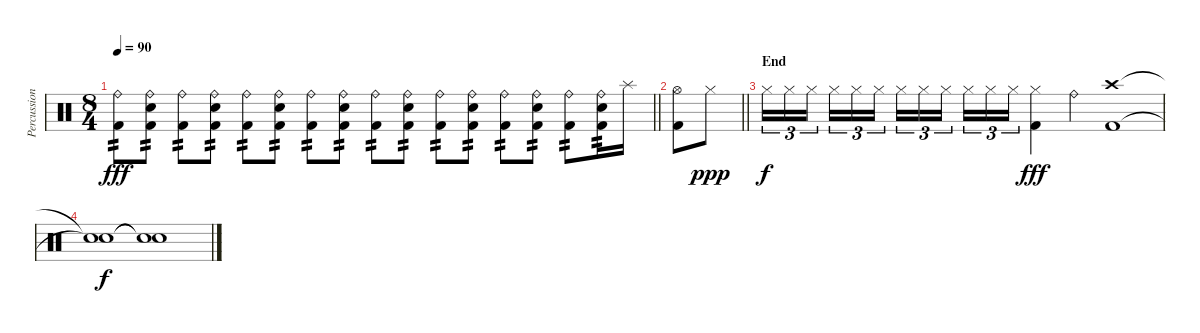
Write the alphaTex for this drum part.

\track ("Percussion" "Percussion") {instrument percussion}
\staff {score}
\articulation defaults
\ts (8 4)
\tempo 90
\clef neutral
\barLineRight lightlight
\ks c
("Ride (bell)" "Kick (hit) 2").8{tp 2 dy fff} ("Ride (bell)" "Electric Snare (hit)" "Kick (hit) 2").8{tp 2} ("Ride (bell)" "Kick (hit) 2").8{tp 2} ("Ride (bell)" "Electric Snare (hit)" "Kick (hit) 2").8{tp 2} ("Ride (bell)" "Kick (hit) 2").8{tp 2} ("Ride (bell)" "Electric Snare (hit)" "Kick (hit) 2").8{tp 2} ("Ride (bell)" "Kick (hit) 2").8{tp 2} ("Ride (bell)" "Electric Snare (hit)" "Kick (hit) 2").8{tp 2} ("Ride (bell)" "Kick (hit) 2").8{tp 2} ("Ride (bell)" "Electric Snare (hit)" "Kick (hit) 2").8{tp 2} ("Ride (bell)" "Kick (hit) 2").8{tp 2} ("Ride (bell)" "Electric Snare (hit)" "Kick (hit) 2").8{tp 2} ("Ride (bell)" "Kick (hit) 2").8{tp 2} ("Ride (bell)" "Electric Snare (hit)" "Kick (hit) 2").8{tp 2} ("Ride (bell)" "Kick (hit) 2").8{tp 2} ("Ride (bell)" "Electric Snare (hit)" "Kick (hit) 2").16{tp 2} "Splash (hit)".16 |
\barLineRight lightlight
("Hi-Hat (open)" "Kick (hit) 2").8 "Hi-Hat (closed)".8{dy ppp} |
\section ("" "End")
"Hi-Hat (closed)".16{tu (3 2) dy f} "Hi-Hat (closed)".16{tu (3 2)} "Hi-Hat (closed)".16{tu (3 2) beam splitsecondary} "Hi-Hat (closed)".16{tu (3 2)} "Hi-Hat (closed)".16{tu (3 2)} "Hi-Hat (closed)".16{tu (3 2)} "Hi-Hat (closed)".16{tu (3 2)} "Hi-Hat (closed)".16{tu (3 2)} "Hi-Hat (closed)".16{tu (3 2) beam splitsecondary} "Hi-Hat (closed)".16{tu (3 2)} "Hi-Hat (closed)".16{tu (3 2)} "Hi-Hat (closed)".16{tu (3 2)} ("Hi-Hat (closed)" "Kick (hit) 2").4{dy fff} "Ride (bell)".4 ("Crash high (hit)" "Kick (hit) 2").1 |
("Snare (hit)"{t} "Snare (hit)"{t}).1{dy f} ("Snare (hit)"{t} "Snare (hit)"{t}).1
